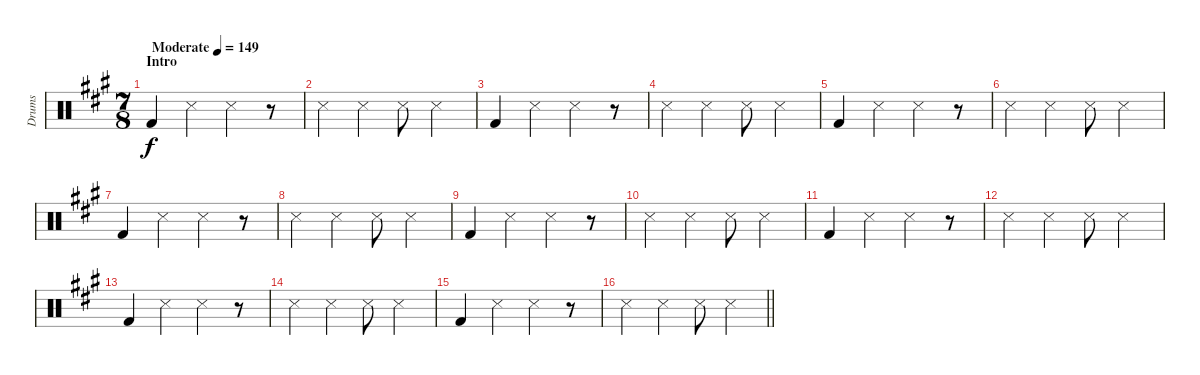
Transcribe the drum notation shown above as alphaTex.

\track ("Drums" "Drums") {instrument percussion}
\staff {score}
\articulation defaults
\ts (7 8)
\section ("" "Intro")
\tempo (149 "Moderate")
\clef neutral
\ks a "Kick (hit) 2".4{dy f} "Snare (side stick) 3".4 "Snare (side stick) 3".4
r.8 |
"Snare (side stick) 3".4 "Snare (side stick) 3".4 "Snare (side stick) 3".8 "Snare (side stick) 3".4 |
"Kick (hit) 2".4 "Snare (side stick) 3".4 "Snare (side stick) 3".4 r.8 |
"Snare (side stick) 3".4 "Snare (side stick) 3".4 "Snare (side stick) 3".8 "Snare (side stick) 3".4 |
"Kick (hit) 2".4 "Snare (side stick) 3".4 "Snare (side stick) 3".4 r.8 |
"Snare (side stick) 3".4 "Snare (side stick) 3".4 "Snare (side stick) 3".8 "Snare (side stick) 3".4 |
"Kick (hit) 2".4 "Snare (side stick) 3".4 "Snare (side stick) 3".4 r.8 |
"Snare (side stick) 3".4 "Snare (side stick) 3".4 "Snare (side stick) 3".8 "Snare (side stick) 3".4 |
"Kick (hit) 2".4 "Snare (side stick) 3".4 "Snare (side stick) 3".4 r.8 |
"Snare (side stick) 3".4 "Snare (side stick) 3".4 "Snare (side stick) 3".8 "Snare (side stick) 3".4 |
"Kick (hit) 2".4 "Snare (side stick) 3".4 "Snare (side stick) 3".4 r.8 |
"Snare (side stick) 3".4 "Snare (side stick) 3".4 "Snare (side stick) 3".8 "Snare (side stick) 3".4 |
"Kick (hit) 2".4 "Snare (side stick) 3".4 "Snare (side stick) 3".4 r.8 |
"Snare (side stick) 3".4 "Snare (side stick) 3".4 "Snare (side stick) 3".8 "Snare (side stick) 3".4 |
"Kick (hit) 2".4 "Snare (side stick) 3".4 "Snare (side stick) 3".4 r.8 |
\barLineRight lightlight "Snare (side stick) 3".4 "Snare (side stick) 3".4 "Snare (side stick) 3".8 "Snare (side stick) 3".4
